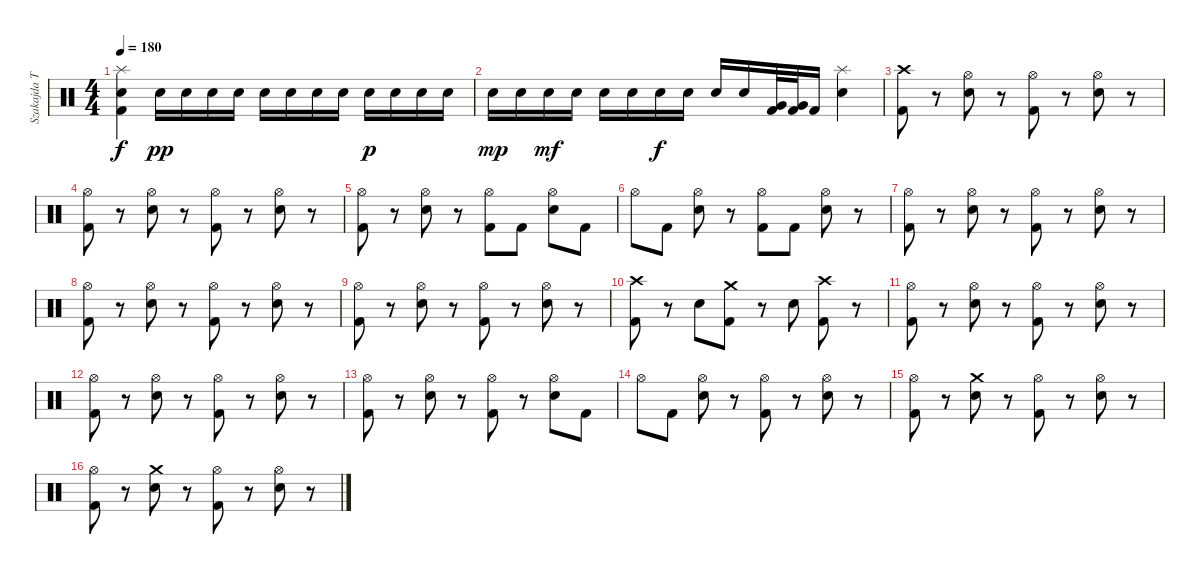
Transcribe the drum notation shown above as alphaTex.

\track ("Szakajda Tibi" "Szakajda T") {instrument percussion}
\staff {score}
\articulation defaults
\ts (4 4)
\tempo 180
\clef neutral
\ks c
("Splash (hit)" "Electric Snare (hit)" "Kick (hit) 2").4{dy f} "Electric Snare (hit)".16{dy pp} "Electric Snare (hit)".16 "Electric Snare (hit)".16 "Electric Snare (hit)".16 "Electric Snare (hit)".16 "Electric Snare (hit)".16 "Electric Snare (hit)".16 "Electric Snare (hit)".16 "Electric Snare (hit)".16{dy p} "Electric Snare (hit)".16 "Electric Snare (hit)".16 "Electric Snare (hit)".16 |
"Electric Snare (hit)".16{dy mp} "Electric Snare (hit)".16 "Electric Snare (hit)".16{dy mf} "Electric Snare (hit)".16 "Electric Snare (hit)".16 "Electric Snare (hit)".16 "Electric Snare (hit)".16{dy f} "Electric Snare (hit)".16 "Electric Snare (hit)".16 "Electric Snare (hit)".16 ("Very Low Tom (hit)" "Kick (hit) 2").32 ("Very Low Tom (hit)" "Kick (hit) 2").32 "Kick (hit) 2".16 ("Splash (hit)" "Electric Snare (hit)").4 |
("Crash high (hit)" "Kick (hit) 2").8 r.8 ("Hi-Hat (open)" "Electric Snare (hit)").8 r.8 ("Hi-Hat (open)" "Kick (hit) 2").8 r.8 ("Hi-Hat (open)" "Electric Snare (hit)").8 r.8 |
("Hi-Hat (open)" "Kick (hit) 2").8 r.8 ("Hi-Hat (open)" "Electric Snare (hit)").8 r.8 ("Hi-Hat (open)" "Kick (hit) 2").8 r.8 ("Hi-Hat (open)" "Electric Snare (hit)").8 r.8 |
("Hi-Hat (open)" "Kick (hit) 2").8 r.8 ("Hi-Hat (open)" "Electric Snare (hit)").8 r.8 ("Hi-Hat (open)" "Kick (hit) 2").8 "Kick (hit) 2".8 ("Hi-Hat (open)" "Electric Snare (hit)").8 "Kick (hit) 2".8 |
"Hi-Hat (open)".8 "Kick (hit) 2".8 ("Hi-Hat (open)" "Electric Snare (hit)").8 r.8 ("Hi-Hat (open)" "Kick (hit) 2").8 "Kick (hit) 2".8 ("Hi-Hat (open)" "Electric Snare (hit)").8 r.8 |
("Hi-Hat (open)" "Kick (hit) 2").8 r.8 ("Hi-Hat (open)" "Electric Snare (hit)").8 r.8 ("Hi-Hat (open)" "Kick (hit) 2").8 r.8 ("Hi-Hat (open)" "Electric Snare (hit)").8 r.8 |
("Hi-Hat (open)" "Kick (hit) 2").8 r.8 ("Hi-Hat (open)" "Electric Snare (hit)").8 r.8 ("Hi-Hat (open)" "Kick (hit) 2").8 r.8 ("Hi-Hat (open)" "Electric Snare (hit)").8 r.8 |
("Hi-Hat (open)" "Kick (hit) 2").8 r.8 ("Hi-Hat (open)" "Electric Snare (hit)").8 r.8 ("Hi-Hat (open)" "Kick (hit) 2").8 r.8 ("Hi-Hat (open)" "Electric Snare (hit)").8 r.8 |
("Crash high (hit)" "Kick (hit) 2").8 r.8 "Electric Snare (hit)".8 ("Crash medium (hit)" "Kick (hit) 2").8 r.8 "Electric Snare (hit)".8 ("Crash high (hit)" "Kick (hit) 2").8 r.8 |
("Hi-Hat (open)" "Kick (hit) 2").8 r.8 ("Hi-Hat (open)" "Electric Snare (hit)").8 r.8 ("Hi-Hat (open)" "Kick (hit) 2").8 r.8 ("Hi-Hat (open)" "Electric Snare (hit)").8 r.8 |
("Hi-Hat (open)" "Kick (hit) 2").8 r.8 ("Hi-Hat (open)" "Electric Snare (hit)").8 r.8 ("Hi-Hat (open)" "Kick (hit) 2").8 r.8 ("Hi-Hat (open)" "Electric Snare (hit)").8 r.8 |
("Hi-Hat (open)" "Kick (hit) 2").8 r.8 ("Hi-Hat (open)" "Electric Snare (hit)").8 r.8 ("Hi-Hat (open)" "Kick (hit) 2").8 r.8 ("Hi-Hat (open)" "Electric Snare (hit)").8 "Kick (hit) 2".8 |
"Hi-Hat (open)".8 "Kick (hit) 2".8 ("Hi-Hat (open)" "Electric Snare (hit)").8 r.8 ("Hi-Hat (open)" "Kick (hit) 2").8 r.8 ("Hi-Hat (open)" "Electric Snare (hit)").8 r.8 |
("Hi-Hat (open)" "Kick (hit) 2").8 r.8 ("Crash medium (hit)" "Electric Snare (hit)").8 r.8 ("Hi-Hat (open)" "Kick (hit) 2").8 r.8 ("Hi-Hat (open)" "Electric Snare (hit)").8 r.8 |
("Hi-Hat (open)" "Kick (hit) 2").8 r.8 ("Crash medium (hit)" "Electric Snare (hit)").8 r.8 ("Hi-Hat (open)" "Kick (hit) 2").8 r.8 ("Hi-Hat (open)" "Electric Snare (hit)").8 r.8
